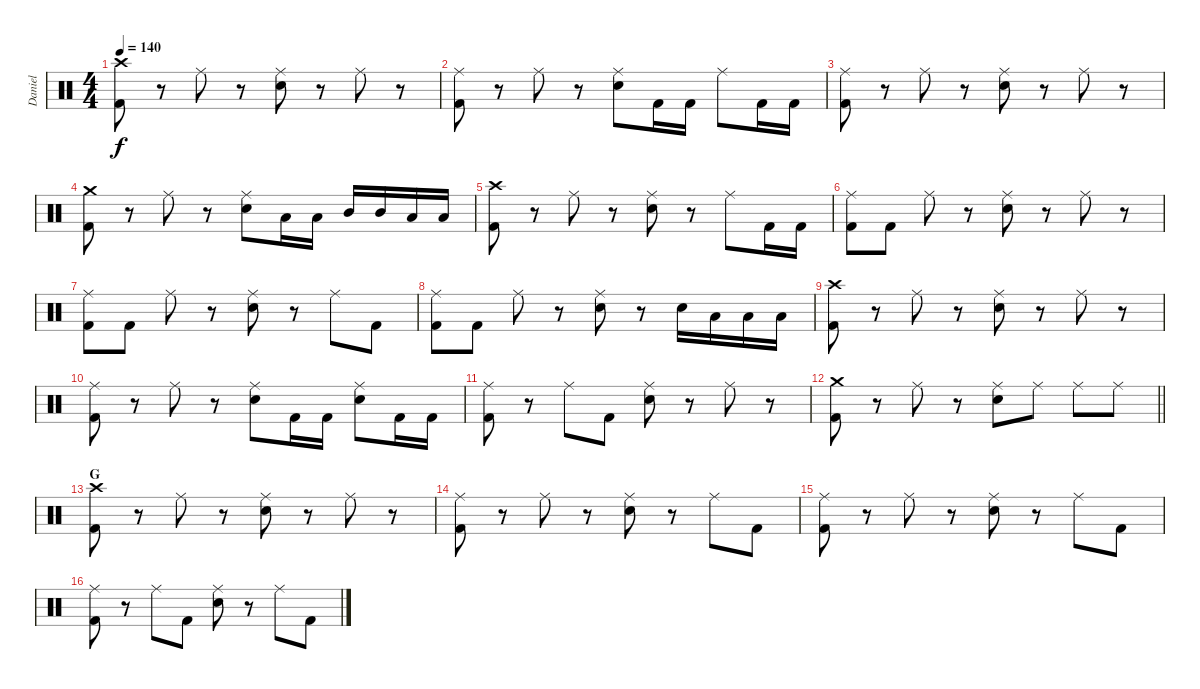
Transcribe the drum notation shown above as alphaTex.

\track ("Daniel" "Daniel") {instrument percussion}
\staff {score}
\articulation defaults
\ts (4 4)
\tempo 140
\clef neutral
\ks c
("Crash high (hit)" "Kick (hit) 2").8{dy f} r.8 "Ride (middle)".8 r.8 ("Ride (middle)" "Snare (hit) 2").8 r.8 "Ride (middle)".8 r.8 |
("Ride (middle)" "Kick (hit) 2").8 r.8 "Ride (middle)".8 r.8 ("Ride (middle)" "Snare (hit) 2").8 "Kick (hit) 2".16 "Kick (hit) 2".16 "Ride (middle)".8 "Kick (hit) 2".16 "Kick (hit) 2".16 |
("Ride (middle)" "Kick (hit) 2").8 r.8 "Ride (middle)".8 r.8 ("Ride (middle)" "Snare (hit) 2").8 r.8 "Ride (middle)".8 r.8 |
("Crash medium (hit)" "Kick (hit) 2").8 r.8 "Ride (middle)".8 r.8 ("Ride (middle)" "Snare (hit) 2").8 "Low Tom (hit)".16 "Low Tom (hit)".16 "Mid Tom (hit)".16 "Mid Tom (hit)".16 "Low Tom (hit)".16 "Low Tom (hit)".16 |
("Crash high (hit)" "Kick (hit) 2").8 r.8 "Ride (middle)".8 r.8 ("Ride (middle)" "Snare (hit) 2").8 r.8 "Ride (middle)".8 "Kick (hit) 2".16 "Kick (hit) 2".16 |
("Ride (middle)" "Kick (hit) 2").8 "Kick (hit) 2".8 "Ride (middle)".8 r.8 ("Ride (middle)" "Snare (hit) 2").8 r.8 "Ride (middle)".8 r.8 |
("Ride (middle)" "Kick (hit) 2").8 "Kick (hit) 2".8 "Ride (middle)".8 r.8 ("Ride (middle)" "Snare (hit) 2").8 r.8 "Ride (middle)".8 "Kick (hit) 2".8 |
("Ride (middle)" "Kick (hit) 2").8 "Kick (hit) 2".8 "Ride (middle)".8 r.8 ("Ride (middle)" "Snare (hit) 2").8 r.8 "Snare (hit) 2".16 "Low Tom (hit)".16 "Low Tom (hit)".16 "Low Tom (hit)".16 |
("Crash high (hit)" "Kick (hit) 2").8 r.8 "Ride (middle)".8 r.8 ("Ride (middle)" "Snare (hit) 2").8 r.8 "Ride (middle)".8 r.8 |
("Ride (middle)" "Kick (hit) 2").8 r.8 "Ride (middle)".8 r.8 ("Ride (middle)" "Snare (hit) 2").8 "Kick (hit) 2".16 "Kick (hit) 2".16 ("Ride (middle)" "Snare (hit) 2").8 "Kick (hit) 2".16 "Kick (hit) 2".16 |
("Ride (middle)" "Kick (hit) 2").8 r.8 "Ride (middle)".8 "Kick (hit) 2".8 ("Ride (middle)" "Snare (hit) 2").8 r.8 "Ride (middle)".8 r.8 |
\barLineRight lightlight
("Crash medium (hit)" "Kick (hit) 2").8 r.8 "Ride (middle)".8 r.8 ("Ride (middle)" "Snare (hit) 2").8 "Ride (middle)".8 "Ride (middle)".8 "Ride (middle)".8 |
\section ("" "G")
("Crash high (hit)" "Kick (hit) 2").8 r.8 "Ride (middle)".8 r.8 ("Ride (middle)" "Snare (hit) 2").8 r.8 "Ride (middle)".8 r.8 |
("Ride (middle)" "Kick (hit) 2").8 r.8 "Ride (middle)".8 r.8 ("Ride (middle)" "Snare (hit) 2").8 r.8 "Ride (middle)".8 "Kick (hit) 2".8 |
("Ride (middle)" "Kick (hit) 2").8 r.8 "Ride (middle)".8 r.8 ("Ride (middle)" "Snare (hit) 2").8 r.8 "Ride (middle)".8 "Kick (hit) 2".8 |
("Ride (middle)" "Kick (hit) 2").8 r.8 "Ride (middle)".8 "Kick (hit) 2".8 ("Ride (middle)" "Snare (hit) 2").8 r.8 "Ride (middle)".8 "Kick (hit) 2".8
